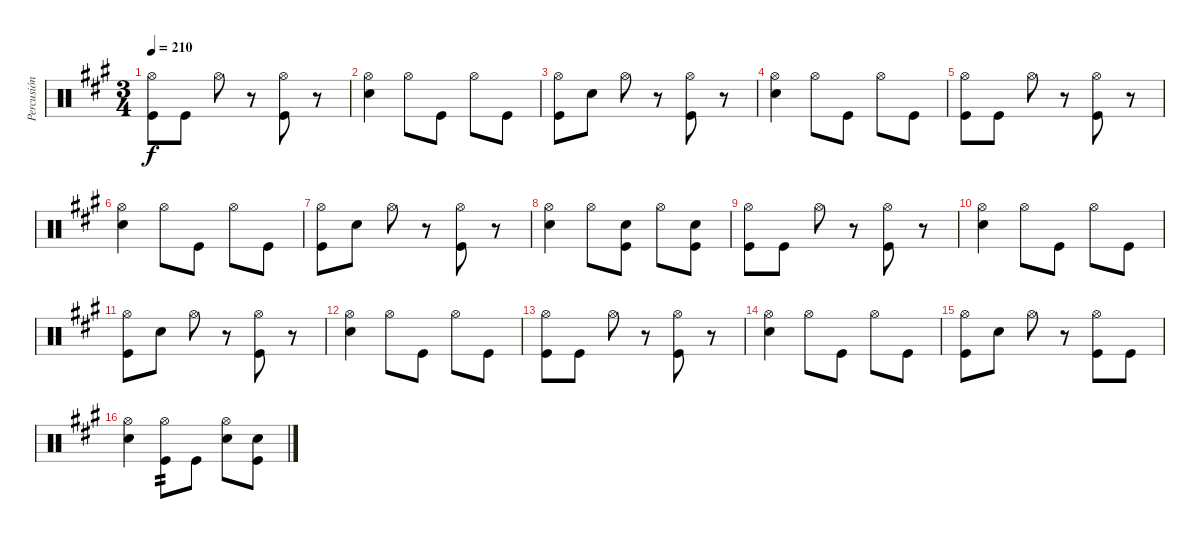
\track ("Percusión" "Percusión") {instrument percussion}
\staff {score}
\articulation defaults
\ts (3 4)
\tempo 210
\clef neutral
\ks a
("Hi-Hat (open)" "Kick (hit)").8{dy f} "Kick (hit)".8 "Hi-Hat (open)".8 r.8 ("Hi-Hat (open)" "Kick (hit)").8 r.8 |
("Hi-Hat (open)" "Electric Snare (hit)").4 "Hi-Hat (open)".8 "Kick (hit)".8 "Hi-Hat (open)".8 "Kick (hit)".8 |
("Hi-Hat (open)" "Kick (hit)").8 "Electric Snare (hit)".8 "Hi-Hat (open)".8 r.8 ("Hi-Hat (open)" "Kick (hit)").8 r.8 |
("Hi-Hat (open)" "Electric Snare (hit)").4 "Hi-Hat (open)".8 "Kick (hit)".8 "Hi-Hat (open)".8 "Kick (hit)".8 |
("Hi-Hat (open)" "Kick (hit)").8 "Kick (hit)".8 "Hi-Hat (open)".8 r.8 ("Hi-Hat (open)" "Kick (hit)").8 r.8 |
("Hi-Hat (open)" "Electric Snare (hit)").4 "Hi-Hat (open)".8 "Kick (hit)".8 "Hi-Hat (open)".8 "Kick (hit)".8 |
("Hi-Hat (open)" "Kick (hit)").8 "Electric Snare (hit)".8 "Hi-Hat (open)".8 r.8 ("Hi-Hat (open)" "Kick (hit)").8 r.8 |
("Hi-Hat (open)" "Electric Snare (hit)").4 "Hi-Hat (open)".8 ("Electric Snare (hit)" "Kick (hit)").8 "Hi-Hat (open)".8 ("Electric Snare (hit)" "Kick (hit)").8 |
("Hi-Hat (open)" "Kick (hit)").8 "Kick (hit)".8 "Hi-Hat (open)".8 r.8 ("Hi-Hat (open)" "Kick (hit)").8 r.8 |
("Hi-Hat (open)" "Electric Snare (hit)").4 "Hi-Hat (open)".8 "Kick (hit)".8 "Hi-Hat (open)".8 "Kick (hit)".8 |
("Hi-Hat (open)" "Kick (hit)").8 "Electric Snare (hit)".8 "Hi-Hat (open)".8 r.8 ("Hi-Hat (open)" "Kick (hit)").8 r.8 |
("Hi-Hat (open)" "Electric Snare (hit)").4 "Hi-Hat (open)".8 "Kick (hit)".8 "Hi-Hat (open)".8 "Kick (hit)".8 |
("Hi-Hat (open)" "Kick (hit)").8 "Kick (hit)".8 "Hi-Hat (open)".8 r.8 ("Hi-Hat (open)" "Kick (hit)").8 r.8 |
("Hi-Hat (open)" "Electric Snare (hit)").4 "Hi-Hat (open)".8 "Kick (hit)".8 "Hi-Hat (open)".8 "Kick (hit)".8 |
("Hi-Hat (open)" "Kick (hit)").8 "Electric Snare (hit)".8 "Hi-Hat (open)".8 r.8 ("Hi-Hat (open)" "Kick (hit)").8 "Kick (hit)".8 |
("Hi-Hat (open)" "Electric Snare (hit)").4 ("Hi-Hat (open)" "Kick (hit)").8{tp 2} "Kick (hit)".8 ("Hi-Hat (open)" "Electric Snare (hit)").8 ("Electric Snare (hit)" "Kick (hit)").8
